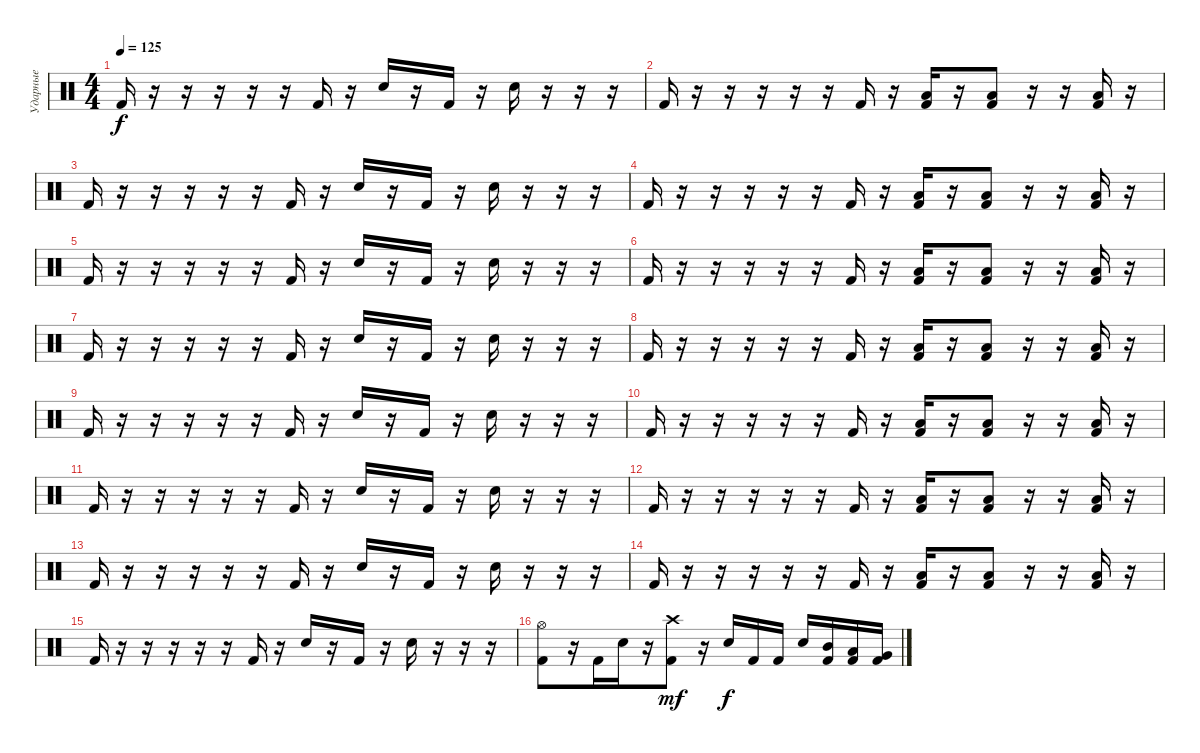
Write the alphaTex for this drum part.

\track ("Ударные" "Ударные") {instrument percussion}
\staff {score}
\articulation defaults
\ts (4 4)
\tempo 125
\clef neutral
\ks c "Kick (hit) 2".16{dy f}
r.16 r.16 r.16{beam merge} r.16 r.16 "Kick (hit) 2".16 r.16 "Electric Snare (hit)".16 r.16 "Kick (hit) 2".16 r.16 "Electric Snare (hit)".16 r.16 r.16 r.16 |
"Kick (hit) 2".16 r.16 r.16 r.16{beam merge} r.16 r.16 "Kick (hit) 2".16 r.16 ("Kick (hit) 2" "Low Floor Tom (hit)").16 r.16 ("Kick (hit) 2" "Low Floor Tom (hit)").8 r.16 r.16 ("Kick (hit) 2" "Low Floor Tom (hit)").16 r.16 |
"Kick (hit) 2".16 r.16 r.16 r.16{beam merge} r.16 r.16 "Kick (hit) 2".16 r.16 "Electric Snare (hit)".16 r.16 "Kick (hit) 2".16 r.16 "Electric Snare (hit)".16 r.16 r.16 r.16 |
"Kick (hit) 2".16 r.16 r.16 r.16{beam merge} r.16 r.16 "Kick (hit) 2".16 r.16 ("Kick (hit) 2" "Low Floor Tom (hit)").16 r.16 ("Kick (hit) 2" "Low Floor Tom (hit)").8 r.16 r.16 ("Kick (hit) 2" "Low Floor Tom (hit)").16 r.16 |
"Kick (hit) 2".16 r.16 r.16 r.16{beam merge} r.16 r.16 "Kick (hit) 2".16 r.16 "Electric Snare (hit)".16 r.16 "Kick (hit) 2".16 r.16 "Electric Snare (hit)".16 r.16 r.16 r.16 |
"Kick (hit) 2".16 r.16 r.16 r.16{beam merge} r.16 r.16 "Kick (hit) 2".16 r.16 ("Kick (hit) 2" "Low Floor Tom (hit)").16 r.16 ("Kick (hit) 2" "Low Floor Tom (hit)").8 r.16 r.16 ("Kick (hit) 2" "Low Floor Tom (hit)").16 r.16 |
"Kick (hit) 2".16 r.16 r.16 r.16{beam merge} r.16 r.16 "Kick (hit) 2".16 r.16 "Electric Snare (hit)".16 r.16 "Kick (hit) 2".16 r.16 "Electric Snare (hit)".16 r.16 r.16 r.16 |
"Kick (hit) 2".16 r.16 r.16 r.16{beam merge} r.16 r.16 "Kick (hit) 2".16 r.16 ("Kick (hit) 2" "Low Floor Tom (hit)").16 r.16 ("Kick (hit) 2" "Low Floor Tom (hit)").8 r.16 r.16 ("Kick (hit) 2" "Low Floor Tom (hit)").16 r.16 |
"Kick (hit) 2".16 r.16 r.16 r.16{beam merge} r.16 r.16 "Kick (hit) 2".16 r.16 "Electric Snare (hit)".16 r.16 "Kick (hit) 2".16 r.16 "Electric Snare (hit)".16 r.16 r.16 r.16 |
"Kick (hit) 2".16 r.16 r.16 r.16{beam merge} r.16 r.16 "Kick (hit) 2".16 r.16 ("Kick (hit) 2" "Low Floor Tom (hit)").16 r.16 ("Kick (hit) 2" "Low Floor Tom (hit)").8 r.16 r.16 ("Kick (hit) 2" "Low Floor Tom (hit)").16 r.16 |
"Kick (hit) 2".16 r.16 r.16 r.16{beam merge} r.16 r.16 "Kick (hit) 2".16 r.16 "Electric Snare (hit)".16 r.16 "Kick (hit) 2".16 r.16 "Electric Snare (hit)".16 r.16 r.16 r.16 |
"Kick (hit) 2".16 r.16 r.16 r.16{beam merge} r.16 r.16 "Kick (hit) 2".16 r.16 ("Kick (hit) 2" "Low Floor Tom (hit)").16 r.16 ("Kick (hit) 2" "Low Floor Tom (hit)").8 r.16 r.16 ("Kick (hit) 2" "Low Floor Tom (hit)").16 r.16 |
"Kick (hit) 2".16 r.16 r.16 r.16{beam merge} r.16 r.16 "Kick (hit) 2".16 r.16 "Electric Snare (hit)".16 r.16 "Kick (hit) 2".16 r.16 "Electric Snare (hit)".16 r.16 r.16 r.16 |
"Kick (hit) 2".16 r.16 r.16 r.16{beam merge} r.16 r.16 "Kick (hit) 2".16 r.16 ("Kick (hit) 2" "Low Floor Tom (hit)").16 r.16 ("Kick (hit) 2" "Low Floor Tom (hit)").8 r.16 r.16 ("Kick (hit) 2" "Low Floor Tom (hit)").16 r.16 |
"Kick (hit) 2".16 r.16 r.16 r.16{beam merge} r.16 r.16 "Kick (hit) 2".16 r.16 "Electric Snare (hit)".16 r.16 "Kick (hit) 2".16 r.16 "Electric Snare (hit)".16 r.16 r.16 r.16 |
("Hi-Hat (open)" "Kick (hit) 2").8 r.16 "Kick (hit) 2".16{beam merge} "Electric Snare (hit)".16 r.16 ("Crash high (hit)" "Kick (hit) 2").8{dy mf} r.16 "Electric Snare (hit)".16{dy f} "Kick (hit) 2".16 "Kick (hit) 2".16 "Electric Snare (hit)".16 ("Mid Tom (hit)" "Kick (hit) 2").16 ("Low Tom (hit)" "Kick (hit) 2").16 ("Very Low Tom (hit)" "Kick (hit) 2").16
